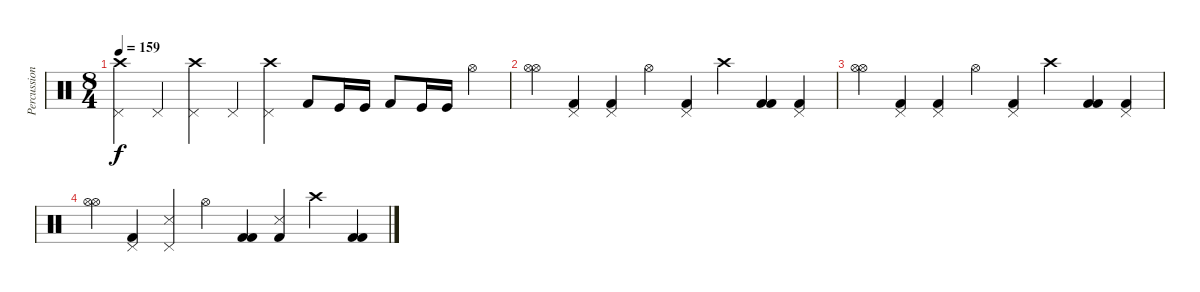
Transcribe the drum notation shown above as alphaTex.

\track ("Percussion" "Percussion") {instrument percussion}
\staff {score}
\articulation defaults
\ts (8 4)
\tempo 159
\clef neutral
\ks c
("Crash high (hit)" "Pedal Hi-Hat (hit)").4{dy f} "Pedal Hi-Hat (hit)".4 ("Crash high (hit)" "Pedal Hi-Hat (hit)").4 "Pedal Hi-Hat (hit)".4 ("Crash high (hit)" "Pedal Hi-Hat (hit)").4 "Kick (hit) 2".8 "Kick (hit)".16 "Kick (hit)".16 "Kick (hit) 2".8 "Kick (hit)".16 "Kick (hit)".16 "Hi-Hat (open)".4 |
("Hi-Hat (open)" "Hi-Hat (open)").4 ("Kick (hit) 2" "Pedal Hi-Hat (hit)").4 ("Pedal Hi-Hat (hit)" "Kick (hit) 2").4 "Hi-Hat (open)".4 ("Pedal Hi-Hat (hit)" "Kick (hit) 2").4 "Crash high (hit)".4 ("Kick (hit) 2" "Kick (hit) 2").4 ("Pedal Hi-Hat (hit)" "Kick (hit) 2").4 |
("Hi-Hat (open)" "Hi-Hat (open)").4 ("Kick (hit) 2" "Pedal Hi-Hat (hit)").4 ("Pedal Hi-Hat (hit)" "Kick (hit) 2").4 "Hi-Hat (open)".4 ("Pedal Hi-Hat (hit)" "Kick (hit) 2").4 "Crash high (hit)".4 ("Kick (hit) 2" "Kick (hit) 2").4 ("Pedal Hi-Hat (hit)" "Kick (hit) 2").4 |
("Hi-Hat (open)" "Hi-Hat (open)").4 ("Kick (hit) 2" "Pedal Hi-Hat (hit)").4 ("Metronome (hit)" "Pedal Hi-Hat (hit)").4 "Hi-Hat (open)".4 ("Kick (hit) 2" "Kick (hit) 2").4 ("Metronome (hit)" "Kick (hit) 2").4 "Crash high (hit)".4 ("Kick (hit) 2" "Kick (hit) 2").4
